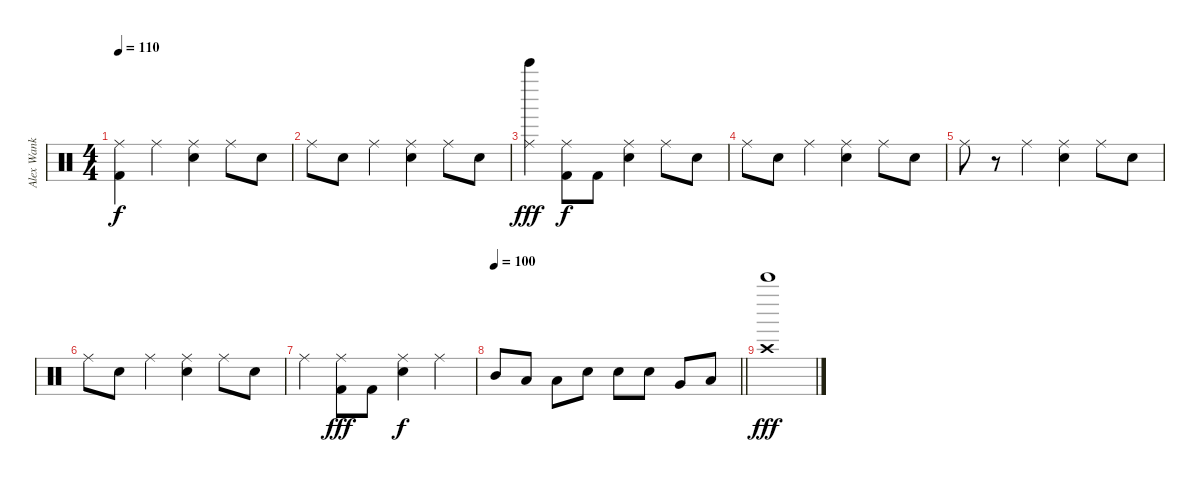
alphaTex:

\track ("Alex Wank" "Alex Wank") {instrument percussion}
\staff {score}
\articulation defaults
\ts (4 4)
\tempo 110
\clef neutral
\ks c
("Kick (hit) 2" "Ride (middle)").4{dy f} "Ride (middle)".4 ("Ride (middle)" "Snare (hit) 2").4 "Ride (middle)".8 "Snare (hit) 2".8 |
"Ride (middle)".8 "Snare (hit) 2".8 "Ride (middle)".4 ("Ride (middle)" "Snare (hit) 2").4 "Ride (middle)".8 "Snare (hit) 2".8 |
("Ride (middle)" "Bell Tree (hit)").4{dy fff} ("Kick (hit) 2" "Ride (middle)").8{dy f} "Kick (hit) 2".8 ("Ride (middle)" "Snare (hit) 2").4 "Ride (middle)".8 "Snare (hit) 2".8 |
"Ride (middle)".8 "Snare (hit) 2".8 "Ride (middle)".4 ("Ride (middle)" "Snare (hit) 2").4 "Ride (middle)".8 "Snare (hit) 2".8 |
"Ride (middle)".8 r.8 "Ride (middle)".4 ("Ride (middle)" "Snare (hit) 2").4 "Ride (middle)".8 "Snare (hit) 2".8 |
"Ride (middle)".8 "Snare (hit) 2".8 "Ride (middle)".4 ("Ride (middle)" "Snare (hit) 2").4 "Ride (middle)".8 "Snare (hit) 2".8 |
"Ride (middle)".4 ("Kick (hit) 2" "Ride (middle)").8{dy fff} "Kick (hit) 2".8 ("Ride (middle)" "Snare (hit) 2").4{dy f} "Ride (middle)".4 |
\tempo 100
\barLineRight lightlight "Mid Tom (hit)".8 "Low Tom (hit)".8 "Low Tom (hit)".8 "Snare (hit) 2".8 "Snare (hit) 2".8 "Snare (hit) 2".8 "Very Low Tom (hit)".8 "Low Floor Tom (hit)".8
|
("Crash high (hit)" "Bell Tree (hit)").1{dy fff}
